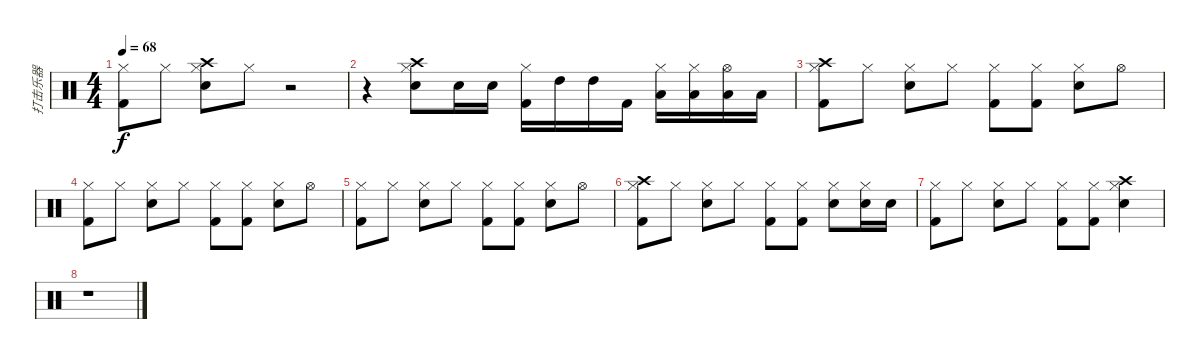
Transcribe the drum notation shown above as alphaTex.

\track ("打击乐器" "打击乐器") {instrument percussion}
\staff {score}
\articulation defaults
\ts (4 4)
\tempo 68
\clef neutral
\ks c
("Hi-Hat (closed)" "Kick (hit) 2").8{dy f} "Hi-Hat (closed)".8 ("Hi-Hat (closed)" "Electric Snare (hit)" "Crash high (hit)").8 "Hi-Hat (closed)".8 r.2 |
r.4 ("Hi-Hat (closed)" "Electric Snare (hit)" "Crash high (hit)").8 "Electric Snare (hit)".16 "Electric Snare (hit)".16 ("Hi-Hat (closed)" "Kick (hit) 2").16 "High Tom (hit)".16 "High Tom (hit)".16 "Kick (hit) 2".16 ("Hi-Hat (closed)" "Low Tom (hit)").16 ("Hi-Hat (closed)" "Low Tom (hit)").16 ("Hi-Hat (open)" "Low Floor Tom (hit)").16 "Low Floor Tom (hit)".16 |
("Hi-Hat (closed)" "Kick (hit) 2" "Crash high (hit)").8 "Hi-Hat (closed)".8 ("Hi-Hat (closed)" "Electric Snare (hit)").8 "Hi-Hat (closed)".8 ("Hi-Hat (closed)" "Kick (hit) 2").8 ("Hi-Hat (closed)" "Kick (hit) 2").8 ("Hi-Hat (closed)" "Electric Snare (hit)").8 "Hi-Hat (open)".8 |
("Hi-Hat (closed)" "Kick (hit) 2").8 "Hi-Hat (closed)".8 ("Hi-Hat (closed)" "Electric Snare (hit)").8 "Hi-Hat (closed)".8 ("Hi-Hat (closed)" "Kick (hit) 2").8 ("Hi-Hat (closed)" "Kick (hit) 2").8 ("Hi-Hat (closed)" "Electric Snare (hit)").8 "Hi-Hat (open)".8 |
("Hi-Hat (closed)" "Kick (hit) 2").8 "Hi-Hat (closed)".8 ("Hi-Hat (closed)" "Electric Snare (hit)").8 "Hi-Hat (closed)".8 ("Hi-Hat (closed)" "Kick (hit) 2").8 ("Hi-Hat (closed)" "Kick (hit) 2").8 ("Hi-Hat (closed)" "Electric Snare (hit)").8 "Hi-Hat (open)".8 |
("Hi-Hat (closed)" "Kick (hit) 2" "Crash high (hit)").8 "Hi-Hat (closed)".8 ("Hi-Hat (closed)" "Electric Snare (hit)").8 "Hi-Hat (closed)".8 ("Hi-Hat (closed)" "Kick (hit) 2").8 ("Hi-Hat (closed)" "Kick (hit) 2").8 ("Hi-Hat (closed)" "Electric Snare (hit)").8 ("Hi-Hat (closed)" "Electric Snare (hit)").16 "Electric Snare (hit)".16 |
("Hi-Hat (closed)" "Kick (hit) 2").8 "Hi-Hat (closed)".8 ("Hi-Hat (closed)" "Electric Snare (hit)").8 "Hi-Hat (closed)".8 ("Hi-Hat (closed)" "Kick (hit) 2").8 ("Hi-Hat (closed)" "Kick (hit) 2").8 ("Hi-Hat (closed)" "Electric Snare (hit)" "Crash high (hit)").4 |
r.1
